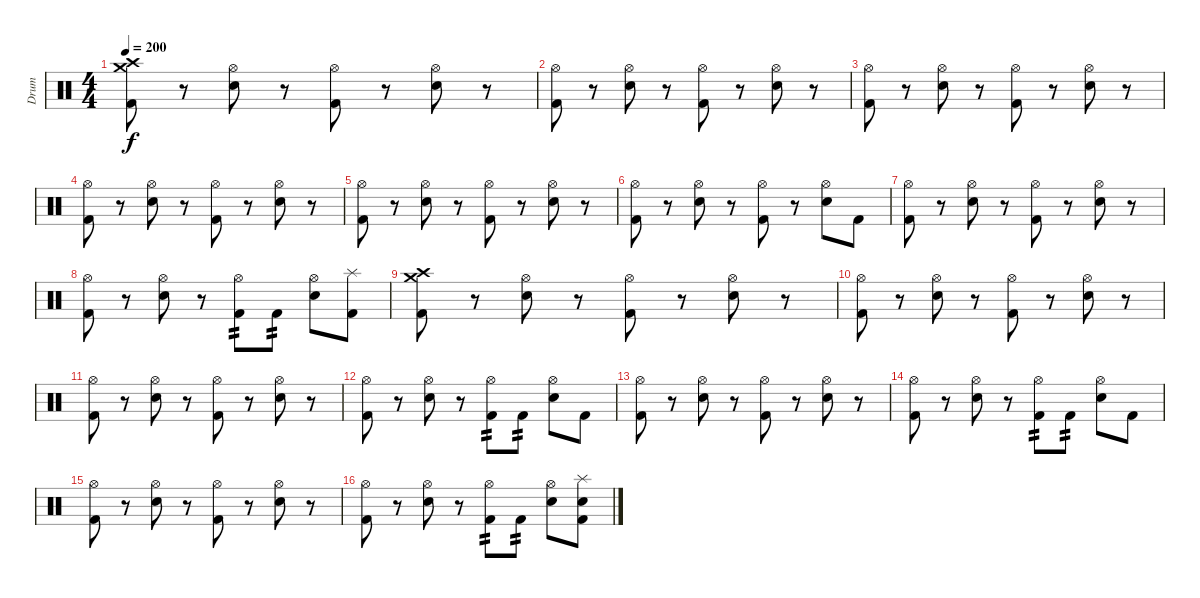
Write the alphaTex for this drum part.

\track ("Drum" "Drum") {instrument percussion}
\staff {score}
\articulation defaults
\ts (4 4)
\tempo 200
\clef neutral
\ks c
("Crash high (hit)" "Crash medium (hit)" "Kick (hit) 2").8{dy f} r.8 ("Hi-Hat (open)" "Snare (hit) 2").8 r.8 ("Hi-Hat (open)" "Kick (hit) 2").8 r.8 ("Hi-Hat (open)" "Snare (hit) 2").8 r.8 |
("Hi-Hat (open)" "Kick (hit) 2").8 r.8 ("Hi-Hat (open)" "Snare (hit) 2").8 r.8 ("Hi-Hat (open)" "Kick (hit) 2").8 r.8 ("Hi-Hat (open)" "Snare (hit) 2").8 r.8 |
("Hi-Hat (open)" "Kick (hit) 2").8 r.8 ("Hi-Hat (open)" "Snare (hit) 2").8 r.8 ("Hi-Hat (open)" "Kick (hit) 2").8 r.8 ("Hi-Hat (open)" "Snare (hit) 2").8 r.8 |
("Hi-Hat (open)" "Kick (hit) 2").8 r.8 ("Hi-Hat (open)" "Snare (hit) 2").8 r.8 ("Hi-Hat (open)" "Kick (hit) 2").8 r.8 ("Hi-Hat (open)" "Snare (hit) 2").8 r.8 |
("Hi-Hat (open)" "Kick (hit) 2").8 r.8 ("Hi-Hat (open)" "Snare (hit) 2").8 r.8 ("Hi-Hat (open)" "Kick (hit) 2").8 r.8 ("Hi-Hat (open)" "Snare (hit) 2").8 r.8 |
("Hi-Hat (open)" "Kick (hit) 2").8 r.8 ("Hi-Hat (open)" "Snare (hit) 2").8 r.8 ("Hi-Hat (open)" "Kick (hit) 2").8 r.8 ("Hi-Hat (open)" "Snare (hit) 2").8 "Kick (hit) 2".8 |
("Hi-Hat (open)" "Kick (hit) 2").8 r.8 ("Hi-Hat (open)" "Snare (hit) 2").8 r.8 ("Hi-Hat (open)" "Kick (hit) 2").8 r.8 ("Hi-Hat (open)" "Snare (hit) 2").8 r.8 |
("Hi-Hat (open)" "Kick (hit) 2").8 r.8 ("Hi-Hat (open)" "Snare (hit) 2").8 r.8 ("Hi-Hat (open)" "Kick (hit) 2").8{tp 2} "Kick (hit) 2".8{tp 2} ("Hi-Hat (open)" "Snare (hit) 2").8 ("Splash (hit)" "Kick (hit) 2").8 |
("Crash high (hit)" "Crash medium (hit)" "Kick (hit) 2").8 r.8 ("Hi-Hat (open)" "Snare (hit) 2").8 r.8 ("Hi-Hat (open)" "Kick (hit) 2").8 r.8 ("Hi-Hat (open)" "Snare (hit) 2").8 r.8 |
("Hi-Hat (open)" "Kick (hit) 2").8 r.8 ("Hi-Hat (open)" "Snare (hit) 2").8 r.8 ("Hi-Hat (open)" "Kick (hit) 2").8 r.8 ("Hi-Hat (open)" "Snare (hit) 2").8 r.8 |
("Hi-Hat (open)" "Kick (hit) 2").8 r.8 ("Hi-Hat (open)" "Snare (hit) 2").8 r.8 ("Hi-Hat (open)" "Kick (hit) 2").8 r.8 ("Hi-Hat (open)" "Snare (hit) 2").8 r.8 |
("Hi-Hat (open)" "Kick (hit) 2").8 r.8 ("Hi-Hat (open)" "Snare (hit) 2").8 r.8 ("Hi-Hat (open)" "Kick (hit) 2").8{tp 2} "Kick (hit) 2".8{tp 2} ("Hi-Hat (open)" "Snare (hit) 2").8 "Kick (hit) 2".8 |
("Hi-Hat (open)" "Kick (hit) 2").8 r.8 ("Hi-Hat (open)" "Snare (hit) 2").8 r.8 ("Hi-Hat (open)" "Kick (hit) 2").8 r.8 ("Hi-Hat (open)" "Snare (hit) 2").8 r.8 |
("Hi-Hat (open)" "Kick (hit) 2").8 r.8 ("Hi-Hat (open)" "Snare (hit) 2").8 r.8 ("Hi-Hat (open)" "Kick (hit) 2").8{tp 2} "Kick (hit) 2".8{tp 2} ("Hi-Hat (open)" "Snare (hit) 2").8 "Kick (hit) 2".8 |
("Hi-Hat (open)" "Kick (hit) 2").8 r.8 ("Hi-Hat (open)" "Snare (hit) 2").8 r.8 ("Hi-Hat (open)" "Kick (hit) 2").8 r.8 ("Hi-Hat (open)" "Snare (hit) 2").8 r.8 |
("Hi-Hat (open)" "Kick (hit) 2").8 r.8 ("Hi-Hat (open)" "Snare (hit) 2").8 r.8 ("Hi-Hat (open)" "Kick (hit) 2").8{tp 2} "Kick (hit) 2".8{tp 2} ("Hi-Hat (open)" "Snare (hit) 2").8 ("Splash (hit)" "Snare (hit) 2" "Kick (hit) 2").8
